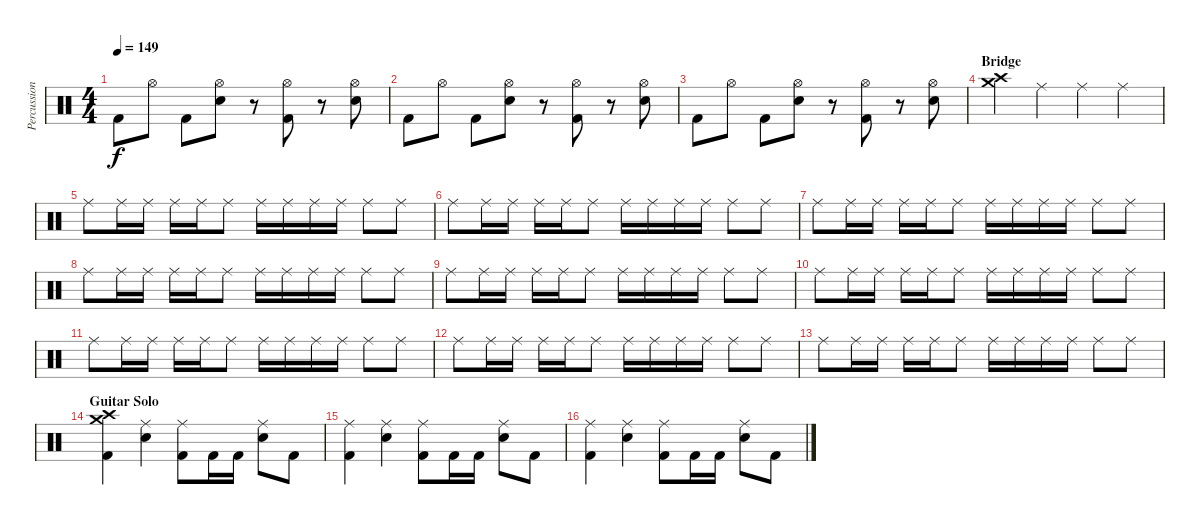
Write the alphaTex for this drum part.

\track ("Percussion" "Percussion") {instrument percussion}
\staff {score}
\articulation defaults
\ts (4 4)
\tempo 149
\clef neutral
\ks c "Kick (hit) 2".8{dy f} "Hi-Hat (open)".8 "Kick (hit) 2".8
("Hi-Hat (open)" "Snare (hit) 2").8 r.8 ("Hi-Hat (open)" "Kick (hit) 2").8 r.8 ("Hi-Hat (open)" "Snare (hit) 2").8 |
"Kick (hit) 2".8 "Hi-Hat (open)".8 "Kick (hit) 2".8 ("Hi-Hat (open)" "Snare (hit) 2").8 r.8 ("Hi-Hat (open)" "Kick (hit) 2").8 r.8 ("Hi-Hat (open)" "Snare (hit) 2").8 |
"Kick (hit) 2".8 "Hi-Hat (open)".8 "Kick (hit) 2".8 ("Hi-Hat (open)" "Snare (hit) 2").8 r.8 ("Hi-Hat (open)" "Kick (hit) 2").8 r.8 ("Hi-Hat (open)" "Snare (hit) 2").8 |
\section ("" "Bridge")
("Crash medium (hit)" "Crash high (hit)").4 "Ride (middle)".4 "Ride (middle)".4 "Ride (middle)".4 |
"Ride (middle)".8 "Ride (middle)".16 "Ride (middle)".16 "Ride (middle)".16 "Ride (middle)".16 "Ride (middle)".8 "Ride (middle)".16 "Ride (middle)".16 "Ride (middle)".16 "Ride (middle)".16 "Ride (middle)".8 "Ride (middle)".8 |
"Ride (middle)".8 "Ride (middle)".16 "Ride (middle)".16 "Ride (middle)".16 "Ride (middle)".16 "Ride (middle)".8 "Ride (middle)".16 "Ride (middle)".16 "Ride (middle)".16 "Ride (middle)".16 "Ride (middle)".8 "Ride (middle)".8 |
"Ride (middle)".8 "Ride (middle)".16 "Ride (middle)".16 "Ride (middle)".16 "Ride (middle)".16 "Ride (middle)".8 "Ride (middle)".16 "Ride (middle)".16 "Ride (middle)".16 "Ride (middle)".16 "Ride (middle)".8 "Ride (middle)".8 |
"Ride (middle)".8 "Ride (middle)".16 "Ride (middle)".16 "Ride (middle)".16 "Ride (middle)".16 "Ride (middle)".8 "Ride (middle)".16 "Ride (middle)".16 "Ride (middle)".16 "Ride (middle)".16 "Ride (middle)".8 "Ride (middle)".8 |
"Ride (middle)".8 "Ride (middle)".16 "Ride (middle)".16 "Ride (middle)".16 "Ride (middle)".16 "Ride (middle)".8 "Ride (middle)".16 "Ride (middle)".16 "Ride (middle)".16 "Ride (middle)".16 "Ride (middle)".8 "Ride (middle)".8 |
"Ride (middle)".8 "Ride (middle)".16 "Ride (middle)".16 "Ride (middle)".16 "Ride (middle)".16 "Ride (middle)".8 "Ride (middle)".16 "Ride (middle)".16 "Ride (middle)".16 "Ride (middle)".16 "Ride (middle)".8 "Ride (middle)".8 |
"Ride (middle)".8 "Ride (middle)".16 "Ride (middle)".16 "Ride (middle)".16 "Ride (middle)".16 "Ride (middle)".8 "Ride (middle)".16 "Ride (middle)".16 "Ride (middle)".16 "Ride (middle)".16 "Ride (middle)".8 "Ride (middle)".8 |
"Ride (middle)".8 "Ride (middle)".16 "Ride (middle)".16 "Ride (middle)".16 "Ride (middle)".16 "Ride (middle)".8 "Ride (middle)".16 "Ride (middle)".16 "Ride (middle)".16 "Ride (middle)".16 "Ride (middle)".8 "Ride (middle)".8 |
"Ride (middle)".8 "Ride (middle)".16 "Ride (middle)".16 "Ride (middle)".16 "Ride (middle)".16 "Ride (middle)".8 "Ride (middle)".16 "Ride (middle)".16 "Ride (middle)".16 "Ride (middle)".16 "Ride (middle)".8 "Ride (middle)".8 |
\section ("" "Guitar Solo")
("Crash medium (hit)" "Crash high (hit)" "Kick (hit) 2").4 ("Ride (middle)" "Snare (hit) 2").4 ("Ride (middle)" "Kick (hit) 2").8 "Kick (hit) 2".16 "Kick (hit) 2".16 ("Ride (middle)" "Snare (hit) 2").8 "Kick (hit) 2".8 |
("Ride (middle)" "Kick (hit) 2").4 ("Ride (middle)" "Snare (hit) 2").4 ("Ride (middle)" "Kick (hit) 2").8 "Kick (hit) 2".16 "Kick (hit) 2".16 ("Ride (middle)" "Snare (hit) 2").8 "Kick (hit) 2".8 |
("Ride (middle)" "Kick (hit) 2").4 ("Ride (middle)" "Snare (hit) 2").4 ("Ride (middle)" "Kick (hit) 2").8 "Kick (hit) 2".16 "Kick (hit) 2".16 ("Ride (middle)" "Snare (hit) 2").8 "Kick (hit) 2".8
